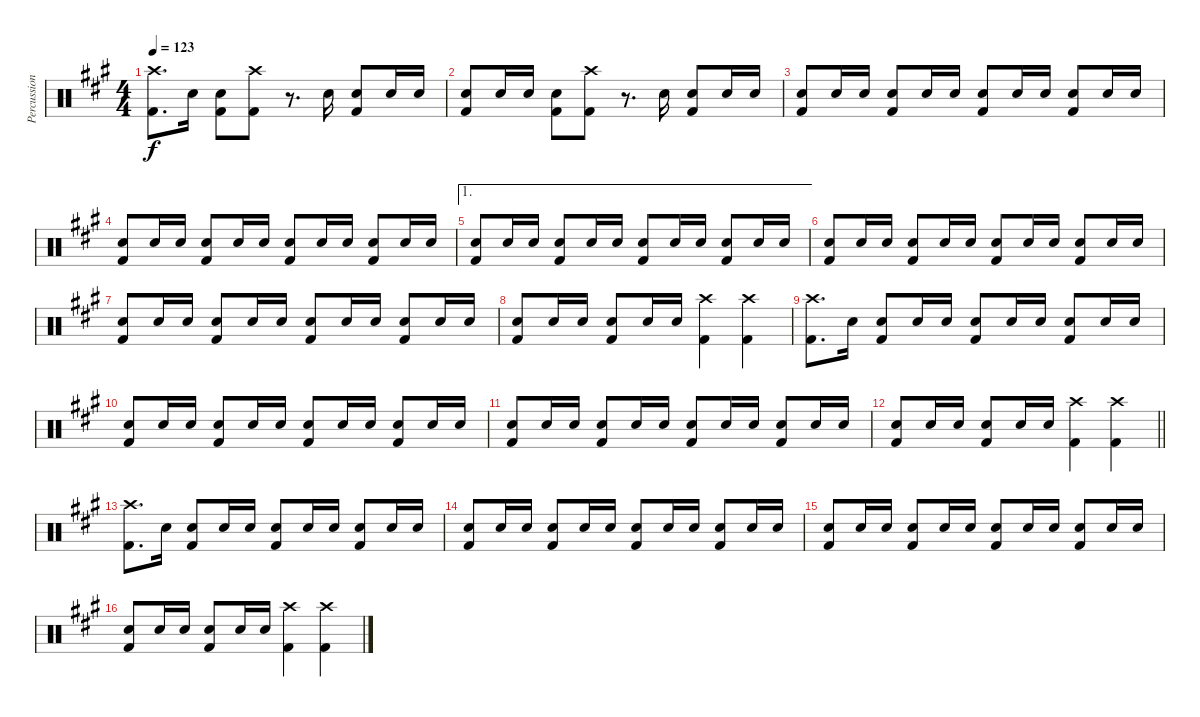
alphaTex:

\track ("Percussion" "Percussion") {instrument percussion}
\staff {score}
\articulation defaults
\ts (4 4)
\tempo 123
\clef neutral
\ks a
("Crash high (hit)" "Kick (hit) 2").8{d dy f} "Snare (hit) 2".16 ("Snare (hit) 2" "Kick (hit) 2").8 ("Crash high (hit)" "Kick (hit) 2").8 r.8{d} "Snare (hit) 2".16 ("Snare (hit) 2" "Kick (hit) 2").8 "Snare (hit) 2".16 "Snare (hit) 2".16 |
("Snare (hit) 2" "Kick (hit) 2").8 "Snare (hit) 2".16 "Snare (hit) 2".16 ("Snare (hit) 2" "Kick (hit) 2").8 ("Crash high (hit)" "Kick (hit) 2").8 r.8{d} "Snare (hit) 2".16 ("Snare (hit) 2" "Kick (hit) 2").8 "Snare (hit) 2".16 "Snare (hit) 2".16 |
("Snare (hit) 2" "Kick (hit) 2").8 "Snare (hit) 2".16 "Snare (hit) 2".16 ("Snare (hit) 2" "Kick (hit) 2").8 "Snare (hit) 2".16 "Snare (hit) 2".16 ("Snare (hit) 2" "Kick (hit) 2").8 "Snare (hit) 2".16 "Snare (hit) 2".16 ("Snare (hit) 2" "Kick (hit) 2").8 "Snare (hit) 2".16 "Snare (hit) 2".16 |
("Snare (hit) 2" "Kick (hit) 2").8 "Snare (hit) 2".16 "Snare (hit) 2".16 ("Snare (hit) 2" "Kick (hit) 2").8 "Snare (hit) 2".16 "Snare (hit) 2".16 ("Snare (hit) 2" "Kick (hit) 2").8 "Snare (hit) 2".16 "Snare (hit) 2".16 ("Snare (hit) 2" "Kick (hit) 2").8 "Snare (hit) 2".16 "Snare (hit) 2".16 |
\ae 1
("Snare (hit) 2" "Kick (hit) 2").8 "Snare (hit) 2".16 "Snare (hit) 2".16 ("Snare (hit) 2" "Kick (hit) 2").8 "Snare (hit) 2".16 "Snare (hit) 2".16 ("Snare (hit) 2" "Kick (hit) 2").8 "Snare (hit) 2".16 "Snare (hit) 2".16 ("Snare (hit) 2" "Kick (hit) 2").8 "Snare (hit) 2".16 "Snare (hit) 2".16 |
("Snare (hit) 2" "Kick (hit) 2").8 "Snare (hit) 2".16 "Snare (hit) 2".16 ("Snare (hit) 2" "Kick (hit) 2").8 "Snare (hit) 2".16 "Snare (hit) 2".16 ("Snare (hit) 2" "Kick (hit) 2").8 "Snare (hit) 2".16 "Snare (hit) 2".16 ("Snare (hit) 2" "Kick (hit) 2").8 "Snare (hit) 2".16 "Snare (hit) 2".16 |
("Snare (hit) 2" "Kick (hit) 2").8 "Snare (hit) 2".16 "Snare (hit) 2".16 ("Snare (hit) 2" "Kick (hit) 2").8 "Snare (hit) 2".16 "Snare (hit) 2".16 ("Snare (hit) 2" "Kick (hit) 2").8 "Snare (hit) 2".16 "Snare (hit) 2".16 ("Snare (hit) 2" "Kick (hit) 2").8 "Snare (hit) 2".16 "Snare (hit) 2".16 |
("Snare (hit) 2" "Kick (hit) 2").8 "Snare (hit) 2".16 "Snare (hit) 2".16 ("Snare (hit) 2" "Kick (hit) 2").8 "Snare (hit) 2".16 "Snare (hit) 2".16 ("Crash high (hit)" "Kick (hit) 2").4 ("Crash high (hit)" "Kick (hit) 2").4 |
("Crash high (hit)" "Kick (hit) 2").8{d} "Snare (hit) 2".16 ("Snare (hit) 2" "Kick (hit) 2").8 "Snare (hit) 2".16 "Snare (hit) 2".16 ("Snare (hit) 2" "Kick (hit) 2").8 "Snare (hit) 2".16 "Snare (hit) 2".16 ("Snare (hit) 2" "Kick (hit) 2").8 "Snare (hit) 2".16 "Snare (hit) 2".16 |
("Snare (hit) 2" "Kick (hit) 2").8 "Snare (hit) 2".16 "Snare (hit) 2".16 ("Snare (hit) 2" "Kick (hit) 2").8 "Snare (hit) 2".16 "Snare (hit) 2".16 ("Snare (hit) 2" "Kick (hit) 2").8 "Snare (hit) 2".16 "Snare (hit) 2".16 ("Snare (hit) 2" "Kick (hit) 2").8 "Snare (hit) 2".16 "Snare (hit) 2".16 |
("Snare (hit) 2" "Kick (hit) 2").8 "Snare (hit) 2".16 "Snare (hit) 2".16 ("Snare (hit) 2" "Kick (hit) 2").8 "Snare (hit) 2".16 "Snare (hit) 2".16 ("Snare (hit) 2" "Kick (hit) 2").8 "Snare (hit) 2".16 "Snare (hit) 2".16 ("Snare (hit) 2" "Kick (hit) 2").8 "Snare (hit) 2".16 "Snare (hit) 2".16 |
\barLineRight lightlight
("Snare (hit) 2" "Kick (hit) 2").8 "Snare (hit) 2".16 "Snare (hit) 2".16 ("Snare (hit) 2" "Kick (hit) 2").8 "Snare (hit) 2".16 "Snare (hit) 2".16 ("Crash high (hit)" "Kick (hit) 2").4 ("Crash high (hit)" "Kick (hit) 2").4 |
("Crash high (hit)" "Kick (hit) 2").8{d} "Snare (hit) 2".16 ("Snare (hit) 2" "Kick (hit) 2").8 "Snare (hit) 2".16 "Snare (hit) 2".16 ("Snare (hit) 2" "Kick (hit) 2").8 "Snare (hit) 2".16 "Snare (hit) 2".16 ("Snare (hit) 2" "Kick (hit) 2").8 "Snare (hit) 2".16 "Snare (hit) 2".16 |
("Snare (hit) 2" "Kick (hit) 2").8 "Snare (hit) 2".16 "Snare (hit) 2".16 ("Snare (hit) 2" "Kick (hit) 2").8 "Snare (hit) 2".16 "Snare (hit) 2".16 ("Snare (hit) 2" "Kick (hit) 2").8 "Snare (hit) 2".16 "Snare (hit) 2".16 ("Snare (hit) 2" "Kick (hit) 2").8 "Snare (hit) 2".16 "Snare (hit) 2".16 |
("Snare (hit) 2" "Kick (hit) 2").8 "Snare (hit) 2".16 "Snare (hit) 2".16 ("Snare (hit) 2" "Kick (hit) 2").8 "Snare (hit) 2".16 "Snare (hit) 2".16 ("Snare (hit) 2" "Kick (hit) 2").8 "Snare (hit) 2".16 "Snare (hit) 2".16 ("Snare (hit) 2" "Kick (hit) 2").8 "Snare (hit) 2".16 "Snare (hit) 2".16 |
("Snare (hit) 2" "Kick (hit) 2").8 "Snare (hit) 2".16 "Snare (hit) 2".16 ("Snare (hit) 2" "Kick (hit) 2").8 "Snare (hit) 2".16 "Snare (hit) 2".16 ("Crash high (hit)" "Kick (hit) 2").4 ("Crash high (hit)" "Kick (hit) 2").4
